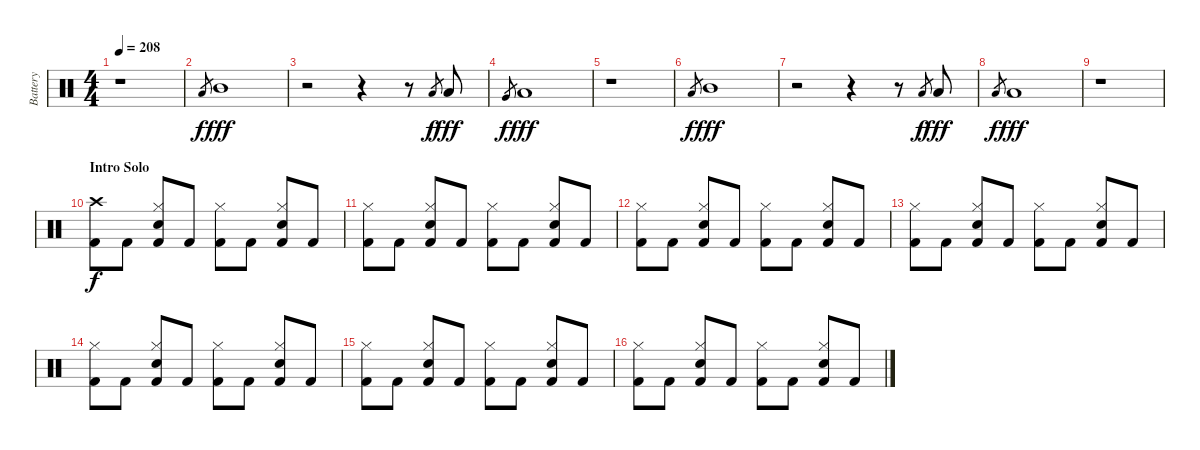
\track ("Battery" "Battery") {instrument percussion}
\staff {score}
\articulation defaults
\ts (4 4)
\tempo 208
\clef neutral
\ks c
r.1{dy f} |
"Low Tom (hit)".8{gr} "Mid Tom (hit)".1{dy fff} |
r.2 r.4 r.8 "Low Tom (hit)".8{gr dy f} "Low Tom (hit)".8{dy fff} |
"Very Low Tom (hit)".8{gr dy f} "Low Tom (hit)".1{dy fff} |
r.1 |
"Low Tom (hit)".8{gr dy f} "Mid Tom (hit)".1{dy fff} |
r.2 r.4 r.8 "Low Tom (hit)".8{gr dy f} "Low Tom (hit)".8{dy fff} |
"Low Tom (hit)".8{gr dy f} "Low Tom (hit)".1{dy fff} |
r.1 |
\section ("" "Intro Solo")
("Crash high (hit)" "Kick (hit) 2").8{dy f} "Kick (hit) 2".8 ("Hi-Hat (closed)" "Electric Snare (hit)" "Kick (hit) 2").8 "Kick (hit) 2".8 ("Hi-Hat (closed)" "Kick (hit) 2").8 "Kick (hit) 2".8 ("Hi-Hat (closed)" "Electric Snare (hit)" "Kick (hit) 2").8 "Kick (hit) 2".8 |
("Hi-Hat (closed)" "Kick (hit) 2").8 "Kick (hit) 2".8 ("Hi-Hat (closed)" "Electric Snare (hit)" "Kick (hit) 2").8 "Kick (hit) 2".8 ("Hi-Hat (closed)" "Kick (hit) 2").8 "Kick (hit) 2".8 ("Hi-Hat (closed)" "Electric Snare (hit)" "Kick (hit) 2").8 "Kick (hit) 2".8 |
("Hi-Hat (closed)" "Kick (hit) 2").8 "Kick (hit) 2".8 ("Hi-Hat (closed)" "Electric Snare (hit)" "Kick (hit) 2").8 "Kick (hit) 2".8 ("Hi-Hat (closed)" "Kick (hit) 2").8 "Kick (hit) 2".8 ("Hi-Hat (closed)" "Electric Snare (hit)" "Kick (hit) 2").8 "Kick (hit) 2".8 |
("Hi-Hat (closed)" "Kick (hit) 2").8 "Kick (hit) 2".8 ("Hi-Hat (closed)" "Electric Snare (hit)" "Kick (hit) 2").8 "Kick (hit) 2".8 ("Hi-Hat (closed)" "Kick (hit) 2").8 "Kick (hit) 2".8 ("Hi-Hat (closed)" "Electric Snare (hit)" "Kick (hit) 2").8 "Kick (hit) 2".8 |
("Hi-Hat (closed)" "Kick (hit) 2").8 "Kick (hit) 2".8 ("Hi-Hat (closed)" "Electric Snare (hit)" "Kick (hit) 2").8 "Kick (hit) 2".8 ("Hi-Hat (closed)" "Kick (hit) 2").8 "Kick (hit) 2".8 ("Hi-Hat (closed)" "Electric Snare (hit)" "Kick (hit) 2").8 "Kick (hit) 2".8 |
("Hi-Hat (closed)" "Kick (hit) 2").8 "Kick (hit) 2".8 ("Hi-Hat (closed)" "Electric Snare (hit)" "Kick (hit) 2").8 "Kick (hit) 2".8 ("Hi-Hat (closed)" "Kick (hit) 2").8 "Kick (hit) 2".8 ("Hi-Hat (closed)" "Electric Snare (hit)" "Kick (hit) 2").8 "Kick (hit) 2".8 |
("Hi-Hat (closed)" "Kick (hit) 2").8 "Kick (hit) 2".8 ("Hi-Hat (closed)" "Electric Snare (hit)" "Kick (hit) 2").8 "Kick (hit) 2".8 ("Hi-Hat (closed)" "Kick (hit) 2").8 "Kick (hit) 2".8 ("Hi-Hat (closed)" "Electric Snare (hit)" "Kick (hit) 2").8 "Kick (hit) 2".8
